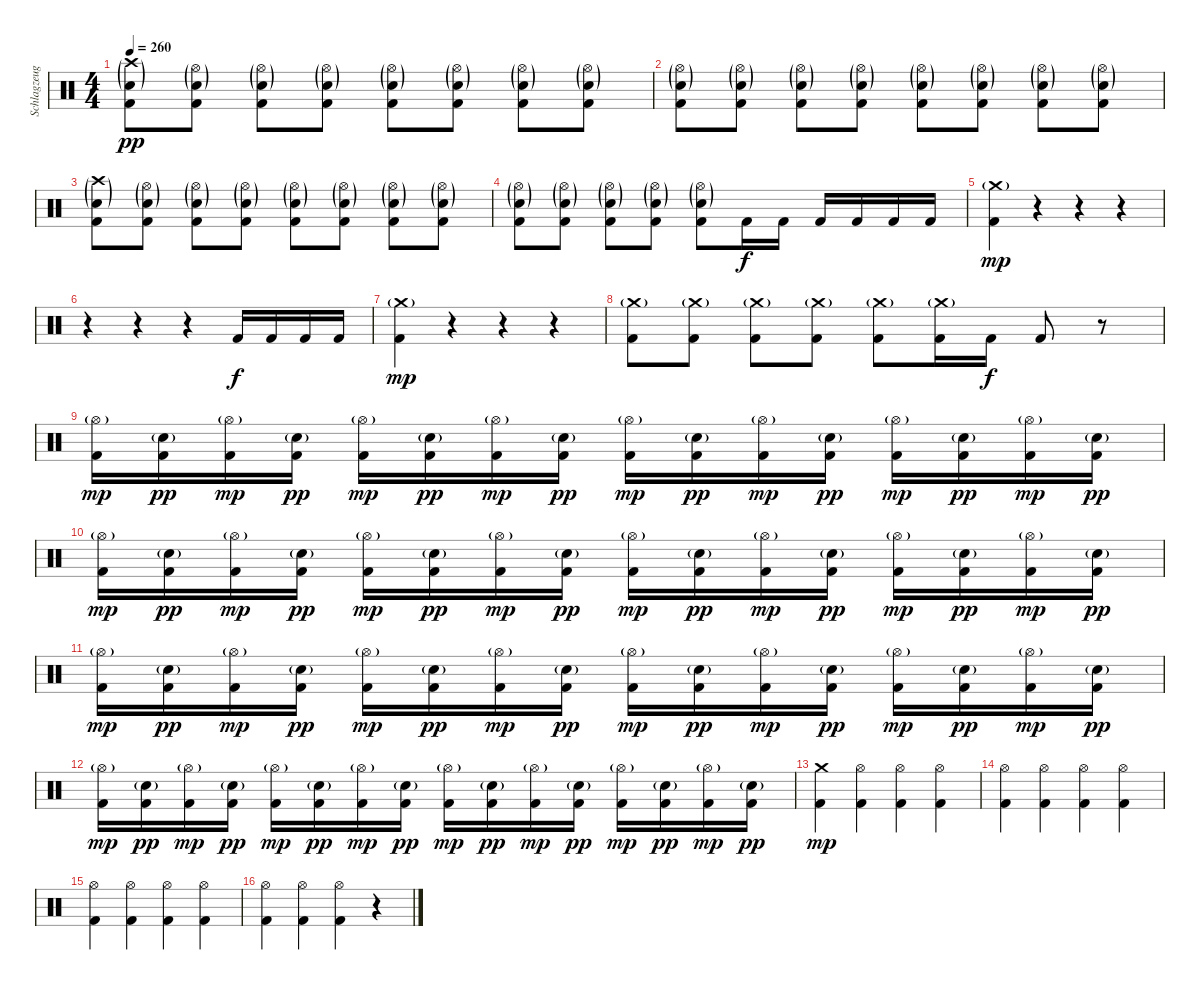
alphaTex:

\track ("Schlagzeug" "Schlagzeug") {instrument percussion}
\staff {score}
\articulation defaults
\ts (4 4)
\tempo 260
\clef neutral
\ks c
("Crash high (hit)"{g} "Electric Snare (hit)"{g} "Kick (hit) 2").8{dy pp} ("Hi-Hat (open)"{g} "Electric Snare (hit)"{g} "Kick (hit) 2").8 ("Hi-Hat (open)"{g} "Electric Snare (hit)"{g} "Kick (hit) 2").8 ("Hi-Hat (open)"{g} "Electric Snare (hit)"{g} "Kick (hit) 2").8 ("Hi-Hat (open)"{g} "Electric Snare (hit)"{g} "Kick (hit) 2").8 ("Hi-Hat (open)"{g} "Electric Snare (hit)"{g} "Kick (hit) 2").8 ("Hi-Hat (open)"{g} "Electric Snare (hit)"{g} "Kick (hit) 2").8 ("Hi-Hat (open)"{g} "Electric Snare (hit)"{g} "Kick (hit) 2").8 |
("Hi-Hat (open)"{g} "Electric Snare (hit)"{g} "Kick (hit) 2").8 ("Hi-Hat (open)"{g} "Electric Snare (hit)"{g} "Kick (hit) 2").8 ("Hi-Hat (open)"{g} "Electric Snare (hit)"{g} "Kick (hit) 2").8 ("Hi-Hat (open)"{g} "Electric Snare (hit)"{g} "Kick (hit) 2").8 ("Hi-Hat (open)"{g} "Electric Snare (hit)"{g} "Kick (hit) 2").8 ("Hi-Hat (open)"{g} "Electric Snare (hit)"{g} "Kick (hit) 2").8 ("Hi-Hat (open)"{g} "Electric Snare (hit)"{g} "Kick (hit) 2").8 ("Hi-Hat (open)"{g} "Electric Snare (hit)"{g} "Kick (hit) 2").8 |
("Crash high (hit)"{g} "Electric Snare (hit)"{g} "Kick (hit) 2").8 ("Hi-Hat (open)"{g} "Electric Snare (hit)"{g} "Kick (hit) 2").8 ("Hi-Hat (open)"{g} "Electric Snare (hit)"{g} "Kick (hit) 2").8 ("Hi-Hat (open)"{g} "Electric Snare (hit)"{g} "Kick (hit) 2").8 ("Hi-Hat (open)"{g} "Electric Snare (hit)"{g} "Kick (hit) 2").8 ("Hi-Hat (open)"{g} "Electric Snare (hit)"{g} "Kick (hit) 2").8 ("Hi-Hat (open)"{g} "Electric Snare (hit)"{g} "Kick (hit) 2").8 ("Hi-Hat (open)"{g} "Electric Snare (hit)"{g} "Kick (hit) 2").8 |
("Hi-Hat (open)"{g} "Electric Snare (hit)"{g} "Kick (hit) 2").8 ("Hi-Hat (open)"{g} "Electric Snare (hit)"{g} "Kick (hit) 2").8 ("Hi-Hat (open)"{g} "Electric Snare (hit)"{g} "Kick (hit) 2").8 ("Hi-Hat (open)"{g} "Electric Snare (hit)"{g} "Kick (hit) 2").8 ("Hi-Hat (open)"{g} "Electric Snare (hit)"{g} "Kick (hit) 2").8 "Kick (hit) 2".16{dy f} "Kick (hit) 2".16 "Kick (hit) 2".16 "Kick (hit) 2".16 "Kick (hit) 2".16 "Kick (hit) 2".16 |
("Crash medium (hit)"{g} "Kick (hit) 2").4{dy mp} r.4 r.4 r.4 |
r.4 r.4 r.4 "Kick (hit) 2".16{dy f} "Kick (hit) 2".16 "Kick (hit) 2".16 "Kick (hit) 2".16 |
("Crash medium (hit)"{g} "Kick (hit) 2").4{dy mp} r.4 r.4 r.4 |
("Crash medium (hit)"{g} "Kick (hit) 2").8 ("Crash medium (hit)"{g} "Kick (hit) 2").8 ("Crash medium (hit)"{g} "Kick (hit) 2").8 ("Crash medium (hit)"{g} "Kick (hit) 2").8 ("Crash medium (hit)"{g} "Kick (hit) 2").8 ("Crash medium (hit)"{g} "Kick (hit) 2").16 "Kick (hit) 2".16{dy f} "Kick (hit) 2".8 r.8 |
("Hi-Hat (open)"{g} "Kick (hit) 2").16{dy mp} ("Electric Snare (hit)"{g} "Kick (hit) 2").16{dy pp} ("Hi-Hat (open)"{g} "Kick (hit) 2").16{dy mp} ("Electric Snare (hit)"{g} "Kick (hit) 2").16{dy pp} ("Hi-Hat (open)"{g} "Kick (hit) 2").16{dy mp} ("Electric Snare (hit)"{g} "Kick (hit) 2").16{dy pp} ("Hi-Hat (open)"{g} "Kick (hit) 2").16{dy mp} ("Electric Snare (hit)"{g} "Kick (hit) 2").16{dy pp} ("Hi-Hat (open)"{g} "Kick (hit) 2").16{dy mp} ("Electric Snare (hit)"{g} "Kick (hit) 2").16{dy pp} ("Hi-Hat (open)"{g} "Kick (hit) 2").16{dy mp} ("Electric Snare (hit)"{g} "Kick (hit) 2").16{dy pp} ("Hi-Hat (open)"{g} "Kick (hit) 2").16{dy mp} ("Electric Snare (hit)"{g} "Kick (hit) 2").16{dy pp} ("Hi-Hat (open)"{g} "Kick (hit) 2").16{dy mp} ("Electric Snare (hit)"{g} "Kick (hit) 2").16{dy pp} |
("Hi-Hat (open)"{g} "Kick (hit) 2").16{dy mp} ("Electric Snare (hit)"{g} "Kick (hit) 2").16{dy pp} ("Hi-Hat (open)"{g} "Kick (hit) 2").16{dy mp} ("Electric Snare (hit)"{g} "Kick (hit) 2").16{dy pp} ("Hi-Hat (open)"{g} "Kick (hit) 2").16{dy mp} ("Electric Snare (hit)"{g} "Kick (hit) 2").16{dy pp} ("Hi-Hat (open)"{g} "Kick (hit) 2").16{dy mp} ("Electric Snare (hit)"{g} "Kick (hit) 2").16{dy pp} ("Hi-Hat (open)"{g} "Kick (hit) 2").16{dy mp} ("Electric Snare (hit)"{g} "Kick (hit) 2").16{dy pp} ("Hi-Hat (open)"{g} "Kick (hit) 2").16{dy mp} ("Electric Snare (hit)"{g} "Kick (hit) 2").16{dy pp} ("Hi-Hat (open)"{g} "Kick (hit) 2").16{dy mp} ("Electric Snare (hit)"{g} "Kick (hit) 2").16{dy pp} ("Hi-Hat (open)"{g} "Kick (hit) 2").16{dy mp} ("Electric Snare (hit)"{g} "Kick (hit) 2").16{dy pp} |
("Hi-Hat (open)"{g} "Kick (hit) 2").16{dy mp} ("Electric Snare (hit)"{g} "Kick (hit) 2").16{dy pp} ("Hi-Hat (open)"{g} "Kick (hit) 2").16{dy mp} ("Electric Snare (hit)"{g} "Kick (hit) 2").16{dy pp} ("Hi-Hat (open)"{g} "Kick (hit) 2").16{dy mp} ("Electric Snare (hit)"{g} "Kick (hit) 2").16{dy pp} ("Hi-Hat (open)"{g} "Kick (hit) 2").16{dy mp} ("Electric Snare (hit)"{g} "Kick (hit) 2").16{dy pp} ("Hi-Hat (open)"{g} "Kick (hit) 2").16{dy mp} ("Electric Snare (hit)"{g} "Kick (hit) 2").16{dy pp} ("Hi-Hat (open)"{g} "Kick (hit) 2").16{dy mp} ("Electric Snare (hit)"{g} "Kick (hit) 2").16{dy pp} ("Hi-Hat (open)"{g} "Kick (hit) 2").16{dy mp} ("Electric Snare (hit)"{g} "Kick (hit) 2").16{dy pp} ("Hi-Hat (open)"{g} "Kick (hit) 2").16{dy mp} ("Electric Snare (hit)"{g} "Kick (hit) 2").16{dy pp} |
("Hi-Hat (open)"{g} "Kick (hit) 2").16{dy mp} ("Electric Snare (hit)"{g} "Kick (hit) 2").16{dy pp} ("Hi-Hat (open)"{g} "Kick (hit) 2").16{dy mp} ("Electric Snare (hit)"{g} "Kick (hit) 2").16{dy pp} ("Hi-Hat (open)"{g} "Kick (hit) 2").16{dy mp} ("Electric Snare (hit)"{g} "Kick (hit) 2").16{dy pp} ("Hi-Hat (open)"{g} "Kick (hit) 2").16{dy mp} ("Electric Snare (hit)"{g} "Kick (hit) 2").16{dy pp} ("Hi-Hat (open)"{g} "Kick (hit) 2").16{dy mp} ("Electric Snare (hit)"{g} "Kick (hit) 2").16{dy pp} ("Hi-Hat (open)"{g} "Kick (hit) 2").16{dy mp} ("Electric Snare (hit)"{g} "Kick (hit) 2").16{dy pp} ("Hi-Hat (open)"{g} "Kick (hit) 2").16{dy mp} ("Electric Snare (hit)"{g} "Kick (hit) 2").16{dy pp} ("Hi-Hat (open)"{g} "Kick (hit) 2").16{dy mp} ("Electric Snare (hit)"{g} "Kick (hit) 2").16{dy pp} |
("Crash medium (hit)" "Kick (hit) 2").4{dy mp} ("Hi-Hat (open)" "Kick (hit) 2").4 ("Hi-Hat (open)" "Kick (hit) 2").4 ("Hi-Hat (open)" "Kick (hit) 2").4 |
("Hi-Hat (open)" "Kick (hit) 2").4 ("Hi-Hat (open)" "Kick (hit) 2").4 ("Hi-Hat (open)" "Kick (hit) 2").4 ("Hi-Hat (open)" "Kick (hit) 2").4 |
("Hi-Hat (open)" "Kick (hit) 2").4 ("Hi-Hat (open)" "Kick (hit) 2").4 ("Hi-Hat (open)" "Kick (hit) 2").4 ("Hi-Hat (open)" "Kick (hit) 2").4 |
("Hi-Hat (open)" "Kick (hit) 2").4 ("Hi-Hat (open)" "Kick (hit) 2").4 ("Hi-Hat (open)" "Kick (hit) 2").4 r.4
